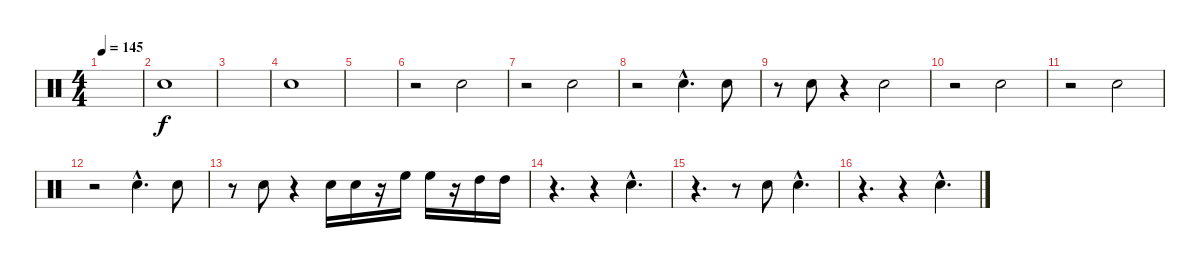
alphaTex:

\track "" {instrument percussion}
\staff {score}
\articulation defaults
\ts (4 4)
\tempo 145
\clef neutral
\ks c
|
"Electric Snare (hit)".1 |
|
"Electric Snare (hit)".1 |
|
r.2 "Electric Snare (hit)".2 |
r.2 "Electric Snare (hit)".2 |
r.2 "Electric Snare (hit)"{hac}.4{d} "Electric Snare (hit)".8 |
r.8 "Electric Snare (hit)".8 r.4 "Electric Snare (hit)".2 |
r.2 "Electric Snare (hit)".2 |
r.2 "Electric Snare (hit)".2 |
r.2 "Electric Snare (hit)"{hac}.4{d} "Electric Snare (hit)".8 |
r.8 "Electric Snare (hit)".8 r.4 "Electric Snare (hit)".16 "Electric Snare (hit)".16 r.16 "High Floor Tom (hit)".16 "High Floor Tom (hit)".16 r.16 "High Tom (hit)".16 "High Tom (hit)".16 |
r.4{d} r.4 "Electric Snare (hit)"{hac}.4{d} |
r.4{d} r.8 "Electric Snare (hit)".8 "Electric Snare (hit)"{hac}.4{d} |
r.4{d} r.4 "Electric Snare (hit)"{hac}.4{d}
